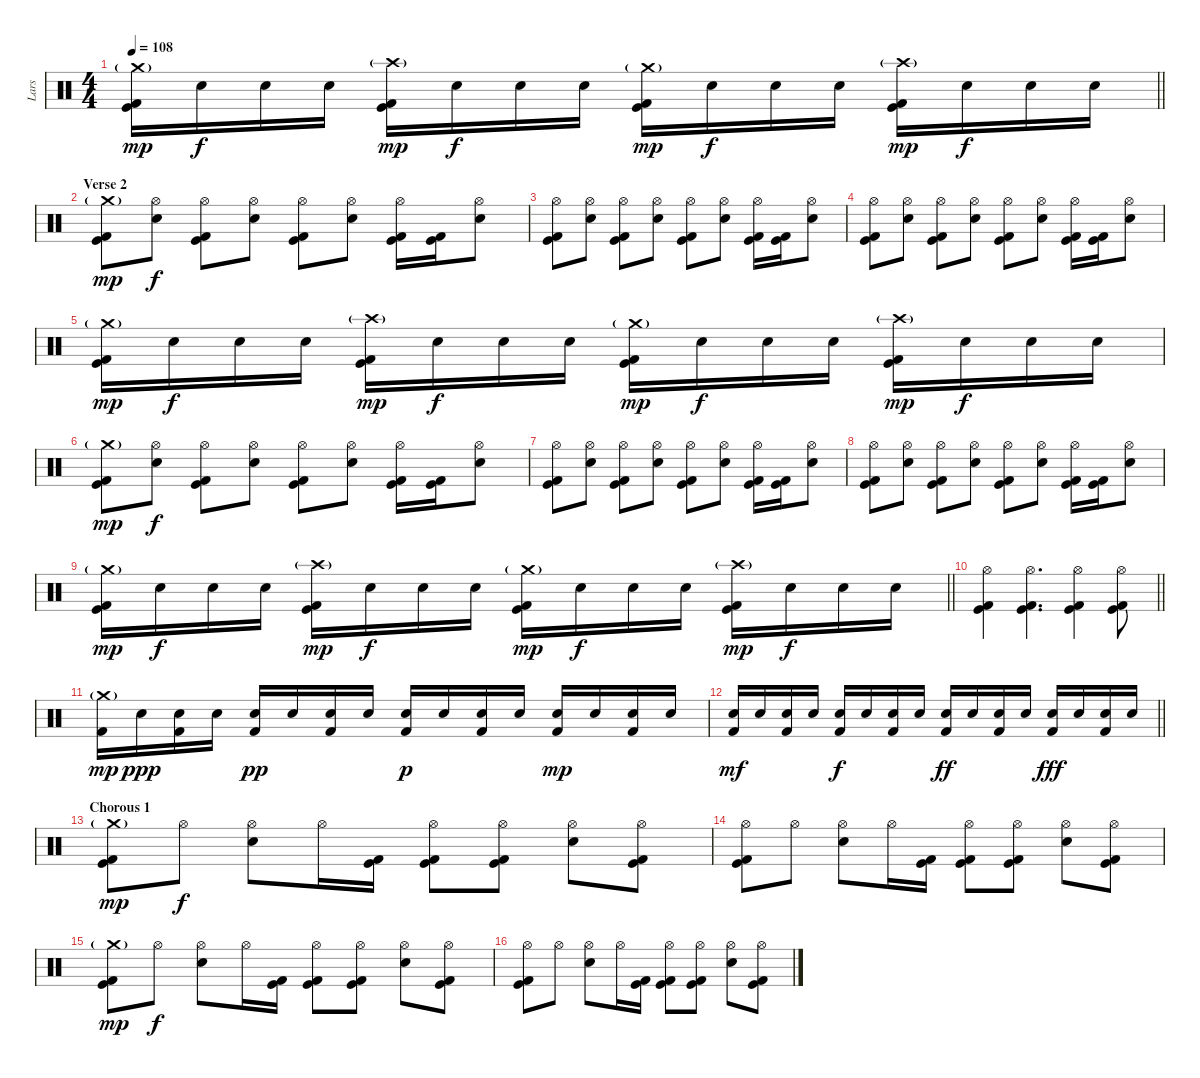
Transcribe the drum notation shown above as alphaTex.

\track ("Lars" "Lars") {instrument percussion}
\staff {score}
\articulation defaults
\ts (4 4)
\tempo 108
\clef neutral
\barLineRight lightlight
\ks c
("Crash medium (hit)"{g} "Kick (hit)" "Kick (hit) 2").16{dy mp} "Electric Snare (hit)".16{dy f} "Electric Snare (hit)".16 "Electric Snare (hit)".16 ("Crash high (hit)"{g} "Kick (hit)" "Kick (hit) 2").16{dy mp} "Electric Snare (hit)".16{dy f} "Electric Snare (hit)".16 "Electric Snare (hit)".16 ("Crash medium (hit)"{g} "Kick (hit)" "Kick (hit) 2").16{dy mp} "Electric Snare (hit)".16{dy f} "Electric Snare (hit)".16 "Electric Snare (hit)".16 ("Crash high (hit)"{g} "Kick (hit)" "Kick (hit) 2").16{dy mp} "Electric Snare (hit)".16{dy f} "Electric Snare (hit)".16 "Electric Snare (hit)".16 |
\section ("" "Verse 2")
("Crash medium (hit)"{g} "Kick (hit)" "Kick (hit) 2").8{dy mp} ("Hi-Hat (open)" "Electric Snare (hit)").8{dy f} ("Hi-Hat (open)" "Kick (hit)" "Kick (hit) 2").8 ("Hi-Hat (open)" "Electric Snare (hit)").8 ("Hi-Hat (open)" "Kick (hit)" "Kick (hit) 2").8 ("Hi-Hat (open)" "Electric Snare (hit)").8 ("Hi-Hat (open)" "Kick (hit)" "Kick (hit) 2").16 ("Kick (hit)" "Kick (hit) 2").16 ("Hi-Hat (open)" "Electric Snare (hit)").8 |
("Hi-Hat (open)" "Kick (hit)" "Kick (hit) 2").8 ("Hi-Hat (open)" "Electric Snare (hit)").8 ("Hi-Hat (open)" "Kick (hit)" "Kick (hit) 2").8 ("Hi-Hat (open)" "Electric Snare (hit)").8 ("Hi-Hat (open)" "Kick (hit)" "Kick (hit) 2").8 ("Hi-Hat (open)" "Electric Snare (hit)").8 ("Hi-Hat (open)" "Kick (hit)" "Kick (hit) 2").16 ("Kick (hit)" "Kick (hit) 2").16 ("Hi-Hat (open)" "Electric Snare (hit)").8 |
("Hi-Hat (open)" "Kick (hit)" "Kick (hit) 2").8 ("Hi-Hat (open)" "Electric Snare (hit)").8 ("Hi-Hat (open)" "Kick (hit)" "Kick (hit) 2").8 ("Hi-Hat (open)" "Electric Snare (hit)").8 ("Hi-Hat (open)" "Kick (hit)" "Kick (hit) 2").8 ("Hi-Hat (open)" "Electric Snare (hit)").8 ("Hi-Hat (open)" "Kick (hit)" "Kick (hit) 2").16 ("Kick (hit)" "Kick (hit) 2").16 ("Hi-Hat (open)" "Electric Snare (hit)").8 |
("Crash medium (hit)"{g} "Kick (hit)" "Kick (hit) 2").16{dy mp} "Electric Snare (hit)".16{dy f} "Electric Snare (hit)".16 "Electric Snare (hit)".16 ("Crash high (hit)"{g} "Kick (hit)" "Kick (hit) 2").16{dy mp} "Electric Snare (hit)".16{dy f} "Electric Snare (hit)".16 "Electric Snare (hit)".16 ("Crash medium (hit)"{g} "Kick (hit)" "Kick (hit) 2").16{dy mp} "Electric Snare (hit)".16{dy f} "Electric Snare (hit)".16 "Electric Snare (hit)".16 ("Crash high (hit)"{g} "Kick (hit)" "Kick (hit) 2").16{dy mp} "Electric Snare (hit)".16{dy f} "Electric Snare (hit)".16 "Electric Snare (hit)".16 |
("Crash medium (hit)"{g} "Kick (hit)" "Kick (hit) 2").8{dy mp} ("Hi-Hat (open)" "Electric Snare (hit)").8{dy f} ("Hi-Hat (open)" "Kick (hit)" "Kick (hit) 2").8 ("Hi-Hat (open)" "Electric Snare (hit)").8 ("Hi-Hat (open)" "Kick (hit)" "Kick (hit) 2").8 ("Hi-Hat (open)" "Electric Snare (hit)").8 ("Hi-Hat (open)" "Kick (hit)" "Kick (hit) 2").16 ("Kick (hit)" "Kick (hit) 2").16 ("Hi-Hat (open)" "Electric Snare (hit)").8 |
("Hi-Hat (open)" "Kick (hit)" "Kick (hit) 2").8 ("Hi-Hat (open)" "Electric Snare (hit)").8 ("Hi-Hat (open)" "Kick (hit)" "Kick (hit) 2").8 ("Hi-Hat (open)" "Electric Snare (hit)").8 ("Hi-Hat (open)" "Kick (hit)" "Kick (hit) 2").8 ("Hi-Hat (open)" "Electric Snare (hit)").8 ("Hi-Hat (open)" "Kick (hit)" "Kick (hit) 2").16 ("Kick (hit)" "Kick (hit) 2").16 ("Hi-Hat (open)" "Electric Snare (hit)").8 |
("Hi-Hat (open)" "Kick (hit)" "Kick (hit) 2").8 ("Hi-Hat (open)" "Electric Snare (hit)").8 ("Hi-Hat (open)" "Kick (hit)" "Kick (hit) 2").8 ("Hi-Hat (open)" "Electric Snare (hit)").8 ("Hi-Hat (open)" "Kick (hit)" "Kick (hit) 2").8 ("Hi-Hat (open)" "Electric Snare (hit)").8 ("Hi-Hat (open)" "Kick (hit)" "Kick (hit) 2").16 ("Kick (hit)" "Kick (hit) 2").16 ("Hi-Hat (open)" "Electric Snare (hit)").8 |
\barLineRight lightlight
("Crash medium (hit)"{g} "Kick (hit)" "Kick (hit) 2").16{dy mp} "Electric Snare (hit)".16{dy f} "Electric Snare (hit)".16 "Electric Snare (hit)".16 ("Crash high (hit)"{g} "Kick (hit)" "Kick (hit) 2").16{dy mp} "Electric Snare (hit)".16{dy f} "Electric Snare (hit)".16 "Electric Snare (hit)".16 ("Crash medium (hit)"{g} "Kick (hit)" "Kick (hit) 2").16{dy mp} "Electric Snare (hit)".16{dy f} "Electric Snare (hit)".16 "Electric Snare (hit)".16 ("Crash high (hit)"{g} "Kick (hit)" "Kick (hit) 2").16{dy mp} "Electric Snare (hit)".16{dy f} "Electric Snare (hit)".16 "Electric Snare (hit)".16 |
\section ("" "")
\barLineRight lightlight
("Hi-Hat (open)" "Kick (hit)" "Kick (hit) 2").4 ("Hi-Hat (open)" "Kick (hit)" "Kick (hit) 2").4{d} ("Hi-Hat (open)" "Kick (hit)" "Kick (hit) 2").4 ("Hi-Hat (open)" "Kick (hit)" "Kick (hit) 2").8 |
\section ("" "")
("Crash medium (hit)"{g} "Kick (hit) 2").16{dy mp} "Electric Snare (hit)".16{dy ppp} ("Electric Snare (hit)" "Kick (hit) 2").16 "Electric Snare (hit)".16 ("Electric Snare (hit)" "Kick (hit) 2").16{dy pp} "Electric Snare (hit)".16 ("Electric Snare (hit)" "Kick (hit) 2").16 "Electric Snare (hit)".16 ("Electric Snare (hit)" "Kick (hit) 2").16{dy p} "Electric Snare (hit)".16 ("Electric Snare (hit)" "Kick (hit) 2").16 "Electric Snare (hit)".16 ("Electric Snare (hit)" "Kick (hit) 2").16{dy mp} "Electric Snare (hit)".16 ("Electric Snare (hit)" "Kick (hit) 2").16 "Electric Snare (hit)".16 |
\barLineRight lightlight
("Electric Snare (hit)" "Kick (hit) 2").16{dy mf} "Electric Snare (hit)".16 ("Electric Snare (hit)" "Kick (hit) 2").16 "Electric Snare (hit)".16 ("Electric Snare (hit)" "Kick (hit) 2").16{dy f} "Electric Snare (hit)".16 ("Electric Snare (hit)" "Kick (hit) 2").16 "Electric Snare (hit)".16 ("Electric Snare (hit)" "Kick (hit) 2").16{dy ff} "Electric Snare (hit)".16 ("Electric Snare (hit)" "Kick (hit) 2").16 "Electric Snare (hit)".16 ("Electric Snare (hit)" "Kick (hit) 2").16{dy fff} "Electric Snare (hit)".16 ("Electric Snare (hit)" "Kick (hit) 2").16 "Electric Snare (hit)".16 |
\section ("" "Chorous 1")
("Crash medium (hit)"{g} "Kick (hit)" "Kick (hit) 2").8{dy mp} "Hi-Hat (open)".8{dy f} ("Hi-Hat (open)" "Electric Snare (hit)").8 "Hi-Hat (open)".16 ("Kick (hit)" "Kick (hit) 2").16 ("Hi-Hat (open)" "Kick (hit)" "Kick (hit) 2").8 ("Hi-Hat (open)" "Kick (hit)" "Kick (hit) 2").8 ("Hi-Hat (open)" "Electric Snare (hit)").8 ("Hi-Hat (open)" "Kick (hit)" "Kick (hit) 2").8 |
("Hi-Hat (open)" "Kick (hit)" "Kick (hit) 2").8 "Hi-Hat (open)".8 ("Hi-Hat (open)" "Electric Snare (hit)").8 "Hi-Hat (open)".16 ("Kick (hit)" "Kick (hit) 2").16 ("Hi-Hat (open)" "Kick (hit)" "Kick (hit) 2").8 ("Hi-Hat (open)" "Kick (hit)" "Kick (hit) 2").8 ("Hi-Hat (open)" "Electric Snare (hit)").8 ("Hi-Hat (open)" "Kick (hit)" "Kick (hit) 2").8 |
("Crash medium (hit)"{g} "Kick (hit)" "Kick (hit) 2").8{dy mp} "Hi-Hat (open)".8{dy f} ("Hi-Hat (open)" "Electric Snare (hit)").8 "Hi-Hat (open)".16 ("Kick (hit)" "Kick (hit) 2").16 ("Hi-Hat (open)" "Kick (hit)" "Kick (hit) 2").8 ("Hi-Hat (open)" "Kick (hit)" "Kick (hit) 2").8 ("Hi-Hat (open)" "Electric Snare (hit)").8 ("Hi-Hat (open)" "Kick (hit)" "Kick (hit) 2").8 |
("Hi-Hat (open)" "Kick (hit)" "Kick (hit) 2").8 "Hi-Hat (open)".8 ("Hi-Hat (open)" "Electric Snare (hit)").8 "Hi-Hat (open)".16 ("Kick (hit)" "Kick (hit) 2").16 ("Hi-Hat (open)" "Kick (hit)" "Kick (hit) 2").8 ("Hi-Hat (open)" "Kick (hit)" "Kick (hit) 2").8 ("Hi-Hat (open)" "Electric Snare (hit)").8 ("Hi-Hat (open)" "Kick (hit)" "Kick (hit) 2").8
